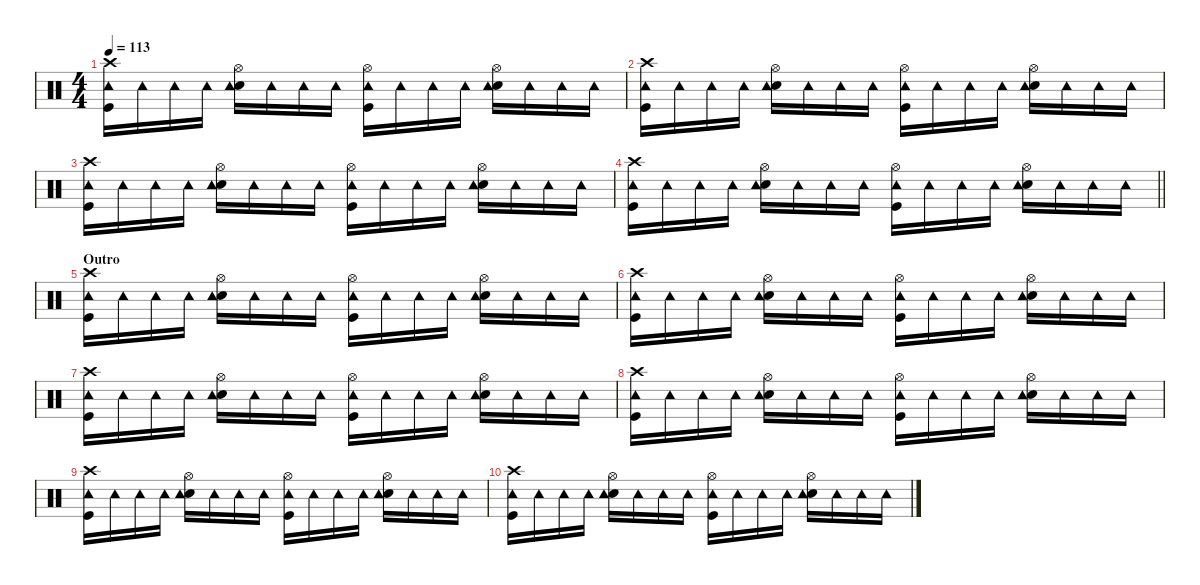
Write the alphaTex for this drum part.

\defaultSystemsLayout 4
\hideDynamics
\bracketExtendMode nobrackets
\singleTrackTrackNamePolicy hidden
\multiTrackTrackNamePolicy hidden
\firstSystemTrackNameMode fullname
\firstSystemTrackNameOrientation horizontal
\otherSystemsTrackNameOrientation horizontal
\track ("Drums" "drm.") {instrument percussion}
\staff {score}
\articulation defaults
\ts (4 4)
\tempo 113
\clef neutral
\ks c
("Kick (hit)" "Crash high (hit)" "Tambourine (hit)").16{dy fff beam Down} "Tambourine (hit)".16{dy p beam Down} "Tambourine (hit)".16{dy mp beam Down} "Tambourine (hit)".16{dy p beam Down} ("Snare (hit) 2" "Hi-Hat (open)" "Tambourine (hit)").16{dy fff beam Down} "Tambourine (hit)".16{dy pp beam Down} "Tambourine (hit)".16{beam Down} "Tambourine (hit)".16{dy p beam Down} ("Kick (hit)" "Hi-Hat (open)" "Tambourine (hit)").16{dy fff beam Down} "Tambourine (hit)".16{dy pp beam Down} "Tambourine (hit)".16{beam Down} "Tambourine (hit)".16{dy p beam Down} ("Snare (hit) 2" "Hi-Hat (open)" "Tambourine (hit)").16{dy fff beam Down} "Tambourine (hit)".16{dy p beam Down} "Tambourine (hit)".16{dy pp beam Down} "Tambourine (hit)".16{dy p beam Down} |
("Kick (hit)" "Crash high (hit)" "Tambourine (hit)").16{dy fff beam Down} "Tambourine (hit)".16{dy p beam Down} "Tambourine (hit)".16{dy mp beam Down} "Tambourine (hit)".16{dy p beam Down} ("Snare (hit) 2" "Hi-Hat (open)" "Tambourine (hit)").16{dy fff beam Down} "Tambourine (hit)".16{dy pp beam Down} "Tambourine (hit)".16{beam Down} "Tambourine (hit)".16{dy p beam Down} ("Kick (hit)" "Hi-Hat (open)" "Tambourine (hit)").16{dy fff beam Down} "Tambourine (hit)".16{dy pp beam Down} "Tambourine (hit)".16{beam Down} "Tambourine (hit)".16{dy p beam Down} ("Snare (hit) 2" "Hi-Hat (open)" "Tambourine (hit)").16{dy fff beam Down} "Tambourine (hit)".16{dy p beam Down} "Tambourine (hit)".16{dy pp beam Down} "Tambourine (hit)".16{dy p beam Down} |
("Kick (hit)" "Crash high (hit)" "Tambourine (hit)").16{dy fff beam Down} "Tambourine (hit)".16{dy p beam Down} "Tambourine (hit)".16{dy mp beam Down} "Tambourine (hit)".16{dy p beam Down} ("Snare (hit) 2" "Hi-Hat (open)" "Tambourine (hit)").16{dy fff beam Down} "Tambourine (hit)".16{dy pp beam Down} "Tambourine (hit)".16{beam Down} "Tambourine (hit)".16{dy p beam Down} ("Kick (hit)" "Hi-Hat (open)" "Tambourine (hit)").16{dy fff beam Down} "Tambourine (hit)".16{dy pp beam Down} "Tambourine (hit)".16{beam Down} "Tambourine (hit)".16{dy p beam Down} ("Snare (hit) 2" "Hi-Hat (open)" "Tambourine (hit)").16{dy fff beam Down} "Tambourine (hit)".16{dy p beam Down} "Tambourine (hit)".16{dy pp beam Down} "Tambourine (hit)".16{dy p beam Down} |
\barLineRight lightlight
("Kick (hit)" "Crash high (hit)" "Tambourine (hit)").16{dy fff beam Down} "Tambourine (hit)".16{dy p beam Down} "Tambourine (hit)".16{dy mp beam Down} "Tambourine (hit)".16{dy p beam Down} ("Snare (hit) 2" "Hi-Hat (open)" "Tambourine (hit)").16{dy fff beam Down} "Tambourine (hit)".16{dy pp beam Down} "Tambourine (hit)".16{beam Down} "Tambourine (hit)".16{dy p beam Down} ("Kick (hit)" "Hi-Hat (open)" "Tambourine (hit)").16{dy fff beam Down} "Tambourine (hit)".16{dy pp beam Down} "Tambourine (hit)".16{beam Down} "Tambourine (hit)".16{dy p beam Down} ("Snare (hit) 2" "Hi-Hat (open)" "Tambourine (hit)").16{dy fff beam Down} "Tambourine (hit)".16{dy p beam Down} "Tambourine (hit)".16{dy pp beam Down} "Tambourine (hit)".16{dy p beam Down} |
\section ("" "Outro")
("Kick (hit)" "Crash high (hit)" "Tambourine (hit)").16{dy fff beam Down} "Tambourine (hit)".16{dy p beam Down} "Tambourine (hit)".16{dy mp beam Down} "Tambourine (hit)".16{dy p beam Down} ("Snare (hit) 2" "Hi-Hat (open)" "Tambourine (hit)").16{dy fff beam Down} "Tambourine (hit)".16{dy pp beam Down} "Tambourine (hit)".16{beam Down} "Tambourine (hit)".16{dy p beam Down} ("Kick (hit)" "Hi-Hat (open)" "Tambourine (hit)").16{dy fff beam Down} "Tambourine (hit)".16{dy pp beam Down} "Tambourine (hit)".16{beam Down} "Tambourine (hit)".16{dy p beam Down} ("Snare (hit) 2" "Hi-Hat (open)" "Tambourine (hit)").16{dy fff beam Down} "Tambourine (hit)".16{dy p beam Down} "Tambourine (hit)".16{dy pp beam Down} "Tambourine (hit)".16{dy p beam Down} |
("Kick (hit)" "Crash high (hit)" "Tambourine (hit)").16{dy fff beam Down} "Tambourine (hit)".16{dy p beam Down} "Tambourine (hit)".16{dy mp beam Down} "Tambourine (hit)".16{dy p beam Down} ("Snare (hit) 2" "Hi-Hat (open)" "Tambourine (hit)").16{dy fff beam Down} "Tambourine (hit)".16{dy pp beam Down} "Tambourine (hit)".16{beam Down} "Tambourine (hit)".16{dy p beam Down} ("Kick (hit)" "Hi-Hat (open)" "Tambourine (hit)").16{dy fff beam Down} "Tambourine (hit)".16{dy pp beam Down} "Tambourine (hit)".16{beam Down} "Tambourine (hit)".16{dy p beam Down} ("Snare (hit) 2" "Hi-Hat (open)" "Tambourine (hit)").16{dy fff beam Down} "Tambourine (hit)".16{dy p beam Down} "Tambourine (hit)".16{dy pp beam Down} "Tambourine (hit)".16{dy p beam Down} |
("Kick (hit)" "Crash high (hit)" "Tambourine (hit)").16{dy fff beam Down} "Tambourine (hit)".16{dy p beam Down} "Tambourine (hit)".16{dy mp beam Down} "Tambourine (hit)".16{dy p beam Down} ("Snare (hit) 2" "Hi-Hat (open)" "Tambourine (hit)").16{dy fff beam Down} "Tambourine (hit)".16{dy pp beam Down} "Tambourine (hit)".16{beam Down} "Tambourine (hit)".16{dy p beam Down} ("Kick (hit)" "Hi-Hat (open)" "Tambourine (hit)").16{dy fff beam Down} "Tambourine (hit)".16{dy pp beam Down} "Tambourine (hit)".16{beam Down} "Tambourine (hit)".16{dy p beam Down} ("Snare (hit) 2" "Hi-Hat (open)" "Tambourine (hit)").16{dy fff beam Down} "Tambourine (hit)".16{dy p beam Down} "Tambourine (hit)".16{dy pp beam Down} "Tambourine (hit)".16{dy p beam Down} |
("Kick (hit)" "Crash high (hit)" "Tambourine (hit)").16{dy fff beam Down} "Tambourine (hit)".16{dy p beam Down} "Tambourine (hit)".16{dy mp beam Down} "Tambourine (hit)".16{dy p beam Down} ("Snare (hit) 2" "Hi-Hat (open)" "Tambourine (hit)").16{dy fff beam Down} "Tambourine (hit)".16{dy pp beam Down} "Tambourine (hit)".16{beam Down} "Tambourine (hit)".16{dy p beam Down} ("Kick (hit)" "Hi-Hat (open)" "Tambourine (hit)").16{dy fff beam Down} "Tambourine (hit)".16{dy pp beam Down} "Tambourine (hit)".16{beam Down} "Tambourine (hit)".16{dy p beam Down} ("Snare (hit) 2" "Hi-Hat (open)" "Tambourine (hit)").16{dy fff beam Down} "Tambourine (hit)".16{dy p beam Down} "Tambourine (hit)".16{dy pp beam Down} "Tambourine (hit)".16{dy p beam Down} |
("Kick (hit)" "Crash high (hit)" "Tambourine (hit)").16{dy fff beam Down} "Tambourine (hit)".16{dy p beam Down} "Tambourine (hit)".16{dy mp beam Down} "Tambourine (hit)".16{dy p beam Down} ("Snare (hit) 2" "Hi-Hat (open)" "Tambourine (hit)").16{dy fff beam Down} "Tambourine (hit)".16{dy pp beam Down} "Tambourine (hit)".16{beam Down} "Tambourine (hit)".16{dy p beam Down} ("Kick (hit)" "Hi-Hat (open)" "Tambourine (hit)").16{dy fff beam Down} "Tambourine (hit)".16{dy pp beam Down} "Tambourine (hit)".16{beam Down} "Tambourine (hit)".16{dy p beam Down} ("Snare (hit) 2" "Hi-Hat (open)" "Tambourine (hit)").16{dy fff beam Down} "Tambourine (hit)".16{dy p beam Down} "Tambourine (hit)".16{dy pp beam Down} "Tambourine (hit)".16{dy p beam Down} |
("Kick (hit)" "Crash high (hit)" "Tambourine (hit)").16{dy fff beam Down} "Tambourine (hit)".16{dy p beam Down} "Tambourine (hit)".16{dy mp beam Down} "Tambourine (hit)".16{dy p beam Down} ("Snare (hit) 2" "Hi-Hat (open)" "Tambourine (hit)").16{dy fff beam Down} "Tambourine (hit)".16{dy pp beam Down} "Tambourine (hit)".16{beam Down} "Tambourine (hit)".16{dy p beam Down} ("Kick (hit)" "Hi-Hat (open)" "Tambourine (hit)").16{dy fff beam Down} "Tambourine (hit)".16{dy pp beam Down} "Tambourine (hit)".16{beam Down} "Tambourine (hit)".16{dy p beam Down} ("Snare (hit) 2" "Hi-Hat (open)" "Tambourine (hit)").16{dy fff beam Down} "Tambourine (hit)".16{dy p beam Down} "Tambourine (hit)".16{dy pp beam Down} "Tambourine (hit)".16{dy p beam Down}
